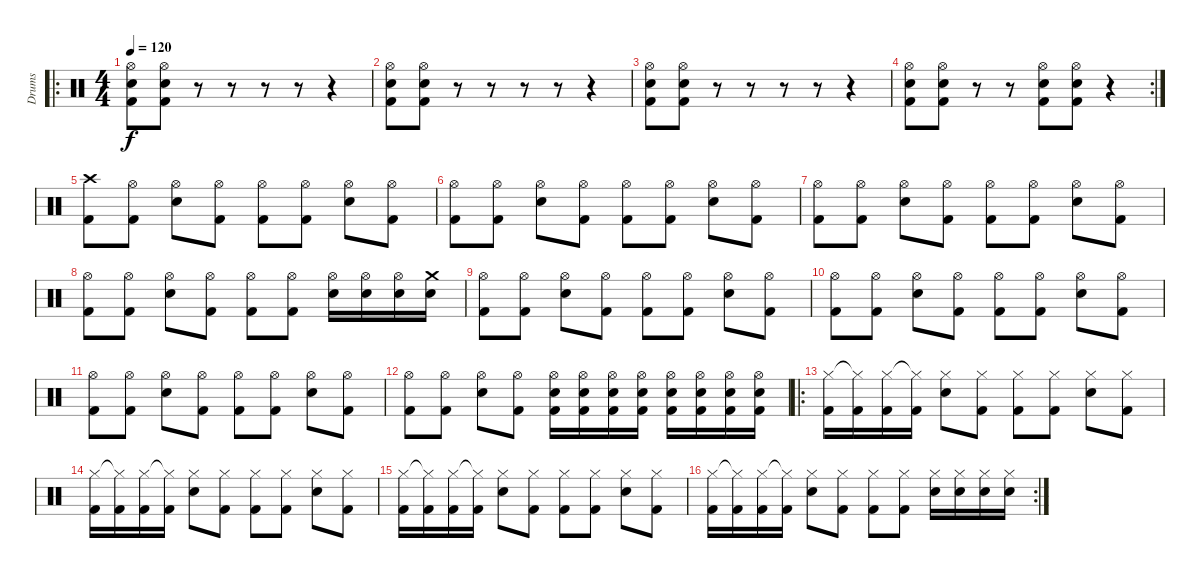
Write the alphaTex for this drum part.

\track ("Drums" "Drums") {instrument percussion}
\staff {score}
\articulation defaults
\ro
\ts (4 4)
\tempo 120
\clef neutral
\ks c
("Hi-Hat (open)" "Kick (hit) 2" "Electric Snare (hit)").8{dy f} ("Hi-Hat (open)" "Kick (hit) 2" "Electric Snare (hit)").8 r.8 r.8 r.8 r.8 r.4 |
("Hi-Hat (open)" "Kick (hit) 2" "Electric Snare (hit)").8 ("Hi-Hat (open)" "Kick (hit) 2" "Electric Snare (hit)").8 r.8 r.8 r.8 r.8 r.4 |
("Hi-Hat (open)" "Kick (hit) 2" "Electric Snare (hit)").8 ("Hi-Hat (open)" "Kick (hit) 2" "Electric Snare (hit)").8 r.8 r.8 r.8 r.8 r.4 |
\rc 2
("Hi-Hat (open)" "Kick (hit) 2" "Electric Snare (hit)").8 ("Hi-Hat (open)" "Kick (hit) 2" "Electric Snare (hit)").8 r.8 r.8 ("Hi-Hat (open)" "Kick (hit) 2" "Electric Snare (hit)").8 ("Hi-Hat (open)" "Kick (hit) 2" "Electric Snare (hit)").8 r.4 |
("Crash high (hit)" "Kick (hit) 2").8 ("Hi-Hat (open)" "Kick (hit) 2").8 ("Hi-Hat (open)" "Electric Snare (hit)").8 ("Hi-Hat (open)" "Kick (hit) 2").8 ("Hi-Hat (open)" "Kick (hit) 2").8 ("Hi-Hat (open)" "Kick (hit) 2").8 ("Hi-Hat (open)" "Electric Snare (hit)").8 ("Hi-Hat (open)" "Kick (hit) 2").8 |
("Hi-Hat (open)" "Kick (hit) 2").8 ("Hi-Hat (open)" "Kick (hit) 2").8 ("Hi-Hat (open)" "Electric Snare (hit)").8 ("Hi-Hat (open)" "Kick (hit) 2").8 ("Hi-Hat (open)" "Kick (hit) 2").8 ("Hi-Hat (open)" "Kick (hit) 2").8 ("Hi-Hat (open)" "Electric Snare (hit)").8 ("Hi-Hat (open)" "Kick (hit) 2").8 |
("Hi-Hat (open)" "Kick (hit) 2").8 ("Hi-Hat (open)" "Kick (hit) 2").8 ("Hi-Hat (open)" "Electric Snare (hit)").8 ("Hi-Hat (open)" "Kick (hit) 2").8 ("Hi-Hat (open)" "Kick (hit) 2").8 ("Hi-Hat (open)" "Kick (hit) 2").8 ("Hi-Hat (open)" "Electric Snare (hit)").8 ("Hi-Hat (open)" "Kick (hit) 2").8 |
("Hi-Hat (open)" "Kick (hit) 2").8 ("Hi-Hat (open)" "Kick (hit) 2").8 ("Hi-Hat (open)" "Electric Snare (hit)").8 ("Hi-Hat (open)" "Kick (hit) 2").8 ("Hi-Hat (open)" "Kick (hit) 2").8 ("Hi-Hat (open)" "Kick (hit) 2").8 ("Hi-Hat (open)" "Electric Snare (hit)").16 ("Hi-Hat (open)" "Electric Snare (hit)").16 ("Hi-Hat (open)" "Electric Snare (hit)").16 ("Crash medium (hit)" "Electric Snare (hit)").16 |
("Hi-Hat (open)" "Kick (hit) 2").8 ("Hi-Hat (open)" "Kick (hit) 2").8 ("Hi-Hat (open)" "Electric Snare (hit)").8 ("Hi-Hat (open)" "Kick (hit) 2").8 ("Hi-Hat (open)" "Kick (hit) 2").8 ("Hi-Hat (open)" "Kick (hit) 2").8 ("Hi-Hat (open)" "Electric Snare (hit)").8 ("Hi-Hat (open)" "Kick (hit) 2").8 |
("Hi-Hat (open)" "Kick (hit) 2").8 ("Hi-Hat (open)" "Kick (hit) 2").8 ("Hi-Hat (open)" "Electric Snare (hit)").8 ("Hi-Hat (open)" "Kick (hit) 2").8 ("Hi-Hat (open)" "Kick (hit) 2").8 ("Hi-Hat (open)" "Kick (hit) 2").8 ("Hi-Hat (open)" "Electric Snare (hit)").8 ("Hi-Hat (open)" "Kick (hit) 2").8 |
("Hi-Hat (open)" "Kick (hit) 2").8 ("Hi-Hat (open)" "Kick (hit) 2").8 ("Hi-Hat (open)" "Electric Snare (hit)").8 ("Hi-Hat (open)" "Kick (hit) 2").8 ("Hi-Hat (open)" "Kick (hit) 2").8 ("Hi-Hat (open)" "Kick (hit) 2").8 ("Hi-Hat (open)" "Electric Snare (hit)").8 ("Hi-Hat (open)" "Kick (hit) 2").8 |
("Hi-Hat (open)" "Kick (hit) 2").8 ("Hi-Hat (open)" "Kick (hit) 2").8 ("Hi-Hat (open)" "Electric Snare (hit)").8 ("Hi-Hat (open)" "Kick (hit) 2").8 ("Hi-Hat (open)" "Kick (hit) 2" "Electric Snare (hit)").16 ("Hi-Hat (open)" "Kick (hit) 2" "Electric Snare (hit)").16 ("Hi-Hat (open)" "Kick (hit) 2" "Electric Snare (hit)").16 ("Hi-Hat (open)" "Kick (hit) 2" "Electric Snare (hit)").16 ("Hi-Hat (open)" "Kick (hit) 2" "Electric Snare (hit)").16 ("Hi-Hat (open)" "Kick (hit) 2" "Electric Snare (hit)").16 ("Hi-Hat (open)" "Kick (hit) 2" "Electric Snare (hit)").16 ("Hi-Hat (open)" "Kick (hit) 2" "Electric Snare (hit)").16 |
\ro
("Hi-Hat (closed)" "Kick (hit) 2").16 ("Hi-Hat (closed)"{t} "Kick (hit) 2").16 ("Hi-Hat (closed)" "Kick (hit) 2").16 ("Hi-Hat (closed)"{t} "Kick (hit) 2").16 ("Hi-Hat (closed)" "Electric Snare (hit)").8 ("Hi-Hat (closed)" "Kick (hit) 2").8 ("Hi-Hat (closed)" "Kick (hit) 2").8 ("Hi-Hat (closed)" "Kick (hit) 2").8 ("Hi-Hat (closed)" "Electric Snare (hit)").8 ("Hi-Hat (closed)" "Kick (hit) 2").8 |
("Hi-Hat (closed)" "Kick (hit) 2").16 ("Hi-Hat (closed)"{t} "Kick (hit) 2").16 ("Hi-Hat (closed)" "Kick (hit) 2").16 ("Hi-Hat (closed)"{t} "Kick (hit) 2").16 ("Hi-Hat (closed)" "Electric Snare (hit)").8 ("Hi-Hat (closed)" "Kick (hit) 2").8 ("Hi-Hat (closed)" "Kick (hit) 2").8 ("Hi-Hat (closed)" "Kick (hit) 2").8 ("Hi-Hat (closed)" "Electric Snare (hit)").8 ("Hi-Hat (closed)" "Kick (hit) 2").8 |
("Hi-Hat (closed)" "Kick (hit) 2").16 ("Hi-Hat (closed)"{t} "Kick (hit) 2").16 ("Hi-Hat (closed)" "Kick (hit) 2").16 ("Hi-Hat (closed)"{t} "Kick (hit) 2").16 ("Hi-Hat (closed)" "Electric Snare (hit)").8 ("Hi-Hat (closed)" "Kick (hit) 2").8 ("Hi-Hat (closed)" "Kick (hit) 2").8 ("Hi-Hat (closed)" "Kick (hit) 2").8 ("Hi-Hat (closed)" "Electric Snare (hit)").8 ("Hi-Hat (closed)" "Kick (hit) 2").8 |
\rc 2
("Hi-Hat (closed)" "Kick (hit) 2").16 ("Hi-Hat (closed)"{t} "Kick (hit) 2").16 ("Hi-Hat (closed)" "Kick (hit) 2").16 ("Hi-Hat (closed)"{t} "Kick (hit) 2").16 ("Hi-Hat (closed)" "Electric Snare (hit)").8 ("Hi-Hat (closed)" "Kick (hit) 2").8 ("Hi-Hat (closed)" "Kick (hit) 2").8 ("Hi-Hat (closed)" "Kick (hit) 2").8 ("Hi-Hat (closed)" "Electric Snare (hit)").16 ("Hi-Hat (closed)" "Electric Snare (hit)").16 ("Hi-Hat (closed)" "Electric Snare (hit)").16 ("Hi-Hat (closed)" "Electric Snare (hit)").16
